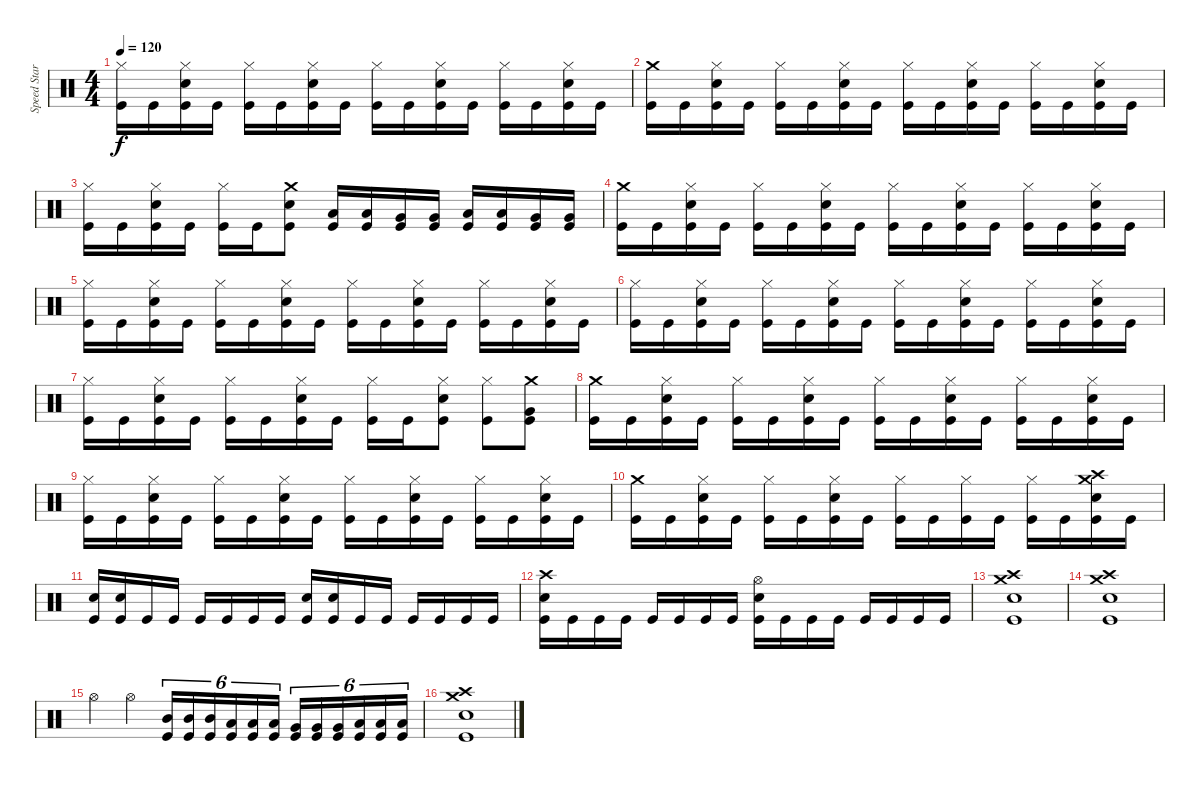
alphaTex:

\track ("Speed Star" "Speed Star") {instrument percussion}
\staff {score}
\articulation defaults
\ts (4 4)
\tempo 120
\clef neutral
\ks c
("Kick (hit)" "Hi-Hat (closed)").16{dy f} "Kick (hit)".16 ("Kick (hit)" "Snare (hit) 2" "Hi-Hat (closed)").16 "Kick (hit)".16 ("Kick (hit)" "Hi-Hat (closed)").16 "Kick (hit)".16 ("Kick (hit)" "Snare (hit) 2" "Hi-Hat (closed)").16 "Kick (hit)".16 ("Kick (hit)" "Hi-Hat (closed)").16 "Kick (hit)".16 ("Kick (hit)" "Snare (hit) 2" "Hi-Hat (closed)").16 "Kick (hit)".16 ("Kick (hit)" "Hi-Hat (closed)").16 "Kick (hit)".16 ("Kick (hit)" "Snare (hit) 2" "Hi-Hat (closed)").16 "Kick (hit)".16 |
("Kick (hit)" "Crash medium (hit)").16 "Kick (hit)".16 ("Kick (hit)" "Snare (hit) 2" "Hi-Hat (closed)").16 "Kick (hit)".16 ("Kick (hit)" "Hi-Hat (closed)").16 "Kick (hit)".16 ("Kick (hit)" "Snare (hit) 2" "Hi-Hat (closed)").16 "Kick (hit)".16 ("Kick (hit)" "Hi-Hat (closed)").16 "Kick (hit)".16 ("Kick (hit)" "Snare (hit) 2" "Hi-Hat (closed)").16 "Kick (hit)".16 ("Kick (hit)" "Hi-Hat (closed)").16 "Kick (hit)".16 ("Kick (hit)" "Snare (hit) 2" "Hi-Hat (closed)").16 "Kick (hit)".16 |
("Kick (hit)" "Hi-Hat (closed)").16 "Kick (hit)".16 ("Kick (hit)" "Snare (hit) 2" "Hi-Hat (closed)").16 "Kick (hit)".16 ("Kick (hit)" "Hi-Hat (closed)").16 "Kick (hit)".16 ("Kick (hit)" "Snare (hit) 2" "Crash medium (hit)").8 ("Kick (hit)" "Low Floor Tom (hit)").16 ("Kick (hit)" "Low Floor Tom (hit)").16 ("Kick (hit)" "Very Low Tom (hit)").16 ("Kick (hit)" "Very Low Tom (hit)").16 ("Kick (hit)" "Low Tom (hit)").16 ("Kick (hit)" "Low Tom (hit)").16 ("Kick (hit)" "Very Low Tom (hit)").16 ("Kick (hit)" "Very Low Tom (hit)").16 |
("Kick (hit)" "Crash medium (hit)").16 "Kick (hit)".16 ("Kick (hit)" "Snare (hit) 2" "Hi-Hat (closed)").16 "Kick (hit)".16 ("Kick (hit)" "Hi-Hat (closed)").16 "Kick (hit)".16 ("Kick (hit)" "Snare (hit) 2" "Hi-Hat (closed)").16 "Kick (hit)".16 ("Kick (hit)" "Hi-Hat (closed)").16 "Kick (hit)".16 ("Kick (hit)" "Snare (hit) 2" "Hi-Hat (closed)").16 "Kick (hit)".16 ("Kick (hit)" "Hi-Hat (closed)").16 "Kick (hit)".16 ("Kick (hit)" "Snare (hit) 2" "Hi-Hat (closed)").16 "Kick (hit)".16 |
("Kick (hit)" "Hi-Hat (closed)").16 "Kick (hit)".16 ("Kick (hit)" "Snare (hit) 2" "Hi-Hat (closed)").16 "Kick (hit)".16 ("Kick (hit)" "Hi-Hat (closed)").16 "Kick (hit)".16 ("Kick (hit)" "Snare (hit) 2" "Hi-Hat (closed)").16 "Kick (hit)".16 ("Kick (hit)" "Hi-Hat (closed)").16 "Kick (hit)".16 ("Kick (hit)" "Snare (hit) 2" "Hi-Hat (closed)").16 "Kick (hit)".16 ("Kick (hit)" "Hi-Hat (closed)").16 "Kick (hit)".16 ("Kick (hit)" "Snare (hit) 2" "Hi-Hat (closed)").16 "Kick (hit)".16 |
("Kick (hit)" "Hi-Hat (closed)").16 "Kick (hit)".16 ("Kick (hit)" "Snare (hit) 2" "Hi-Hat (closed)").16 "Kick (hit)".16 ("Kick (hit)" "Hi-Hat (closed)").16 "Kick (hit)".16 ("Kick (hit)" "Snare (hit) 2" "Hi-Hat (closed)").16 "Kick (hit)".16 ("Kick (hit)" "Hi-Hat (closed)").16 "Kick (hit)".16 ("Kick (hit)" "Snare (hit) 2" "Hi-Hat (closed)").16 "Kick (hit)".16 ("Kick (hit)" "Hi-Hat (closed)").16 "Kick (hit)".16 ("Kick (hit)" "Snare (hit) 2" "Hi-Hat (closed)").16 "Kick (hit)".16 |
("Kick (hit)" "Hi-Hat (closed)").16 "Kick (hit)".16 ("Kick (hit)" "Snare (hit) 2" "Hi-Hat (closed)").16 "Kick (hit)".16 ("Kick (hit)" "Hi-Hat (closed)").16 "Kick (hit)".16 ("Kick (hit)" "Snare (hit) 2" "Hi-Hat (closed)").16 "Kick (hit)".16 ("Kick (hit)" "Hi-Hat (closed)").16 "Kick (hit)".16 ("Kick (hit)" "Snare (hit) 2" "Hi-Hat (closed)").8 ("Kick (hit)" "Hi-Hat (closed)").8 ("Kick (hit)" "Very Low Tom (hit)" "Crash medium (hit)").8 |
("Kick (hit)" "Crash medium (hit)").16 "Kick (hit)".16 ("Kick (hit)" "Snare (hit) 2" "Hi-Hat (closed)").16 "Kick (hit)".16 ("Kick (hit)" "Hi-Hat (closed)").16 "Kick (hit)".16 ("Kick (hit)" "Snare (hit) 2" "Hi-Hat (closed)").16 "Kick (hit)".16 ("Kick (hit)" "Hi-Hat (closed)").16 "Kick (hit)".16 ("Kick (hit)" "Snare (hit) 2" "Hi-Hat (closed)").16 "Kick (hit)".16 ("Kick (hit)" "Hi-Hat (closed)").16 "Kick (hit)".16 ("Kick (hit)" "Snare (hit) 2" "Hi-Hat (closed)").16 "Kick (hit)".16 |
("Kick (hit)" "Hi-Hat (closed)").16 "Kick (hit)".16 ("Kick (hit)" "Snare (hit) 2" "Hi-Hat (closed)").16 "Kick (hit)".16 ("Kick (hit)" "Hi-Hat (closed)").16 "Kick (hit)".16 ("Kick (hit)" "Snare (hit) 2" "Hi-Hat (closed)").16 "Kick (hit)".16 ("Kick (hit)" "Hi-Hat (closed)").16 "Kick (hit)".16 ("Kick (hit)" "Snare (hit) 2" "Hi-Hat (closed)").16 "Kick (hit)".16 ("Kick (hit)" "Hi-Hat (closed)").16 "Kick (hit)".16 ("Kick (hit)" "Snare (hit) 2" "Hi-Hat (closed)").16 "Kick (hit)".16 |
("Kick (hit)" "Crash medium (hit)").16 "Kick (hit)".16 ("Kick (hit)" "Snare (hit) 2" "Hi-Hat (closed)").16 "Kick (hit)".16 ("Kick (hit)" "Hi-Hat (closed)").16 "Kick (hit)".16 ("Kick (hit)" "Snare (hit) 2" "Hi-Hat (closed)").16 "Kick (hit)".16 ("Kick (hit)" "Hi-Hat (closed)").16 "Kick (hit)".16 ("Kick (hit)" "Hi-Hat (closed)").16 "Kick (hit)".16 ("Kick (hit)" "Hi-Hat (closed)").16 "Kick (hit)".16 ("Kick (hit)" "Snare (hit) 2" "Crash high (hit)" "Crash medium (hit)").16 "Kick (hit)".16 |
("Kick (hit)" "Snare (hit) 2").16 ("Kick (hit)" "Snare (hit) 2").16 "Kick (hit)".16 "Kick (hit)".16 "Kick (hit)".16 "Kick (hit)".16 "Kick (hit)".16 "Kick (hit)".16 ("Kick (hit)" "Snare (hit) 2").16 ("Kick (hit)" "Snare (hit) 2").16 "Kick (hit)".16 "Kick (hit)".16 "Kick (hit)".16 "Kick (hit)".16 "Kick (hit)".16 "Kick (hit)".16 |
("Kick (hit)" "Snare (hit) 2" "Crash high (hit)").16 "Kick (hit)".16 "Kick (hit)".16 "Kick (hit)".16 "Kick (hit)".16 "Kick (hit)".16 "Kick (hit)".16 "Kick (hit)".16 ("Kick (hit)" "Snare (hit) 2" "Hi-Hat (open)").16 "Kick (hit)".16 "Kick (hit)".16 "Kick (hit)".16 "Kick (hit)".16 "Kick (hit)".16 "Kick (hit)".16 "Kick (hit)".16 |
("Kick (hit)" "Snare (hit) 2" "Crash high (hit)" "Crash medium (hit)").1 |
("Kick (hit)" "Snare (hit) 2" "Crash high (hit)" "Crash medium (hit)").1 |
"Hi-Hat (open)".4 "Hi-Hat (open)".4 ("Kick (hit)" "Mid Tom (hit)").16{tu (6 4)} ("Kick (hit)" "Mid Tom (hit)").16{tu (6 4)} ("Kick (hit)" "Mid Tom (hit)").16{tu (6 4)} ("Kick (hit)" "Low Tom (hit)").16{tu (6 4)} ("Kick (hit)" "Low Tom (hit)").16{tu (6 4)} ("Kick (hit)" "Low Tom (hit)").16{tu (6 4)} ("Kick (hit)" "Very Low Tom (hit)").16{tu (6 4)} ("Kick (hit)" "Very Low Tom (hit)").16{tu (6 4)} ("Kick (hit)" "Very Low Tom (hit)").16{tu (6 4)} ("Kick (hit)" "Low Floor Tom (hit)").16{tu (6 4)} ("Kick (hit)" "Low Floor Tom (hit)").16{tu (6 4)} ("Kick (hit)" "Low Floor Tom (hit)").16{tu (6 4)} |
("Kick (hit)" "Snare (hit) 2" "Crash high (hit)" "Crash medium (hit)").1
